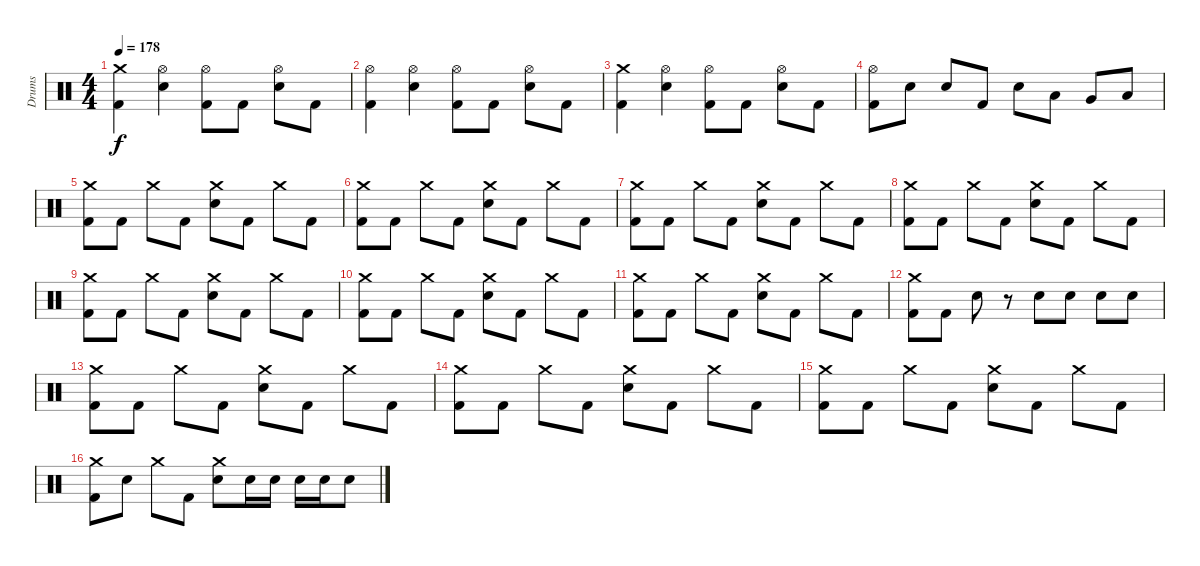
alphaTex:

\track ("Drums" "Drums") {instrument percussion}
\staff {score}
\articulation defaults
\ts (4 4)
\tempo 178
\clef neutral
\ks c
("Crash medium (hit)" "Kick (hit) 2").4{dy f} ("Hi-Hat (open)" "Electric Snare (hit)").4 ("Hi-Hat (open)" "Kick (hit) 2").8 "Kick (hit) 2".8 ("Hi-Hat (open)" "Electric Snare (hit)").8 "Kick (hit) 2".8 |
("Hi-Hat (open)" "Kick (hit) 2").4 ("Hi-Hat (open)" "Electric Snare (hit)").4 ("Hi-Hat (open)" "Kick (hit) 2").8 "Kick (hit) 2".8 ("Hi-Hat (open)" "Electric Snare (hit)").8 "Kick (hit) 2".8 |
("Crash medium (hit)" "Kick (hit) 2").4 ("Hi-Hat (open)" "Electric Snare (hit)").4 ("Hi-Hat (open)" "Kick (hit) 2").8 "Kick (hit) 2".8 ("Hi-Hat (open)" "Electric Snare (hit)").8 "Kick (hit) 2".8 |
("Hi-Hat (open)" "Kick (hit) 2").8 "Electric Snare (hit)".8 "Electric Snare (hit)".8 "Kick (hit) 2".8 "Electric Snare (hit)".8 "Low Tom (hit)".8 "Very Low Tom (hit)".8 "Low Floor Tom (hit)".8 |
("Crash medium (hit)" "Kick (hit) 2").8 "Kick (hit) 2".8 "Crash medium (hit)".8 "Kick (hit) 2".8 ("Crash medium (hit)" "Electric Snare (hit)").8 "Kick (hit) 2".8 "Crash medium (hit)".8 "Kick (hit) 2".8 |
("Crash medium (hit)" "Kick (hit) 2").8 "Kick (hit) 2".8 "Crash medium (hit)".8 "Kick (hit) 2".8 ("Crash medium (hit)" "Electric Snare (hit)").8 "Kick (hit) 2".8 "Crash medium (hit)".8 "Kick (hit) 2".8 |
("Crash medium (hit)" "Kick (hit) 2").8 "Kick (hit) 2".8 "Crash medium (hit)".8 "Kick (hit) 2".8 ("Crash medium (hit)" "Electric Snare (hit)").8 "Kick (hit) 2".8 "Crash medium (hit)".8 "Kick (hit) 2".8 |
("Crash medium (hit)" "Kick (hit) 2").8 "Kick (hit) 2".8 "Crash medium (hit)".8 "Kick (hit) 2".8 ("Crash medium (hit)" "Electric Snare (hit)").8 "Kick (hit) 2".8 "Crash medium (hit)".8 "Kick (hit) 2".8 |
("Crash medium (hit)" "Kick (hit) 2").8 "Kick (hit) 2".8 "Crash medium (hit)".8 "Kick (hit) 2".8 ("Crash medium (hit)" "Electric Snare (hit)").8 "Kick (hit) 2".8 "Crash medium (hit)".8 "Kick (hit) 2".8 |
("Crash medium (hit)" "Kick (hit) 2").8 "Kick (hit) 2".8 "Crash medium (hit)".8 "Kick (hit) 2".8 ("Crash medium (hit)" "Electric Snare (hit)").8 "Kick (hit) 2".8 "Crash medium (hit)".8 "Kick (hit) 2".8 |
("Crash medium (hit)" "Kick (hit) 2").8 "Kick (hit) 2".8 "Crash medium (hit)".8 "Kick (hit) 2".8 ("Crash medium (hit)" "Electric Snare (hit)").8 "Kick (hit) 2".8 "Crash medium (hit)".8 "Kick (hit) 2".8 |
("Crash medium (hit)" "Kick (hit) 2").8 "Kick (hit) 2".8 "Electric Snare (hit)".8 r.8 "Electric Snare (hit)".8 "Electric Snare (hit)".8 "Electric Snare (hit)".8 "Electric Snare (hit)".8 |
("Crash medium (hit)" "Kick (hit) 2").8 "Kick (hit) 2".8 "Crash medium (hit)".8 "Kick (hit) 2".8 ("Crash medium (hit)" "Electric Snare (hit)").8 "Kick (hit) 2".8 "Crash medium (hit)".8 "Kick (hit) 2".8 |
("Crash medium (hit)" "Kick (hit) 2").8 "Kick (hit) 2".8 "Crash medium (hit)".8 "Kick (hit) 2".8 ("Crash medium (hit)" "Electric Snare (hit)").8 "Kick (hit) 2".8 "Crash medium (hit)".8 "Kick (hit) 2".8 |
("Crash medium (hit)" "Kick (hit) 2").8 "Kick (hit) 2".8 "Crash medium (hit)".8 "Kick (hit) 2".8 ("Crash medium (hit)" "Electric Snare (hit)").8 "Kick (hit) 2".8 "Crash medium (hit)".8 "Kick (hit) 2".8 |
("Crash medium (hit)" "Kick (hit) 2").8 "Electric Snare (hit)".8 "Crash medium (hit)".8 "Kick (hit) 2".8 ("Crash medium (hit)" "Electric Snare (hit)").8 "Electric Snare (hit)".16 "Electric Snare (hit)".16 "Electric Snare (hit)".16 "Electric Snare (hit)".16 "Electric Snare (hit)".8
